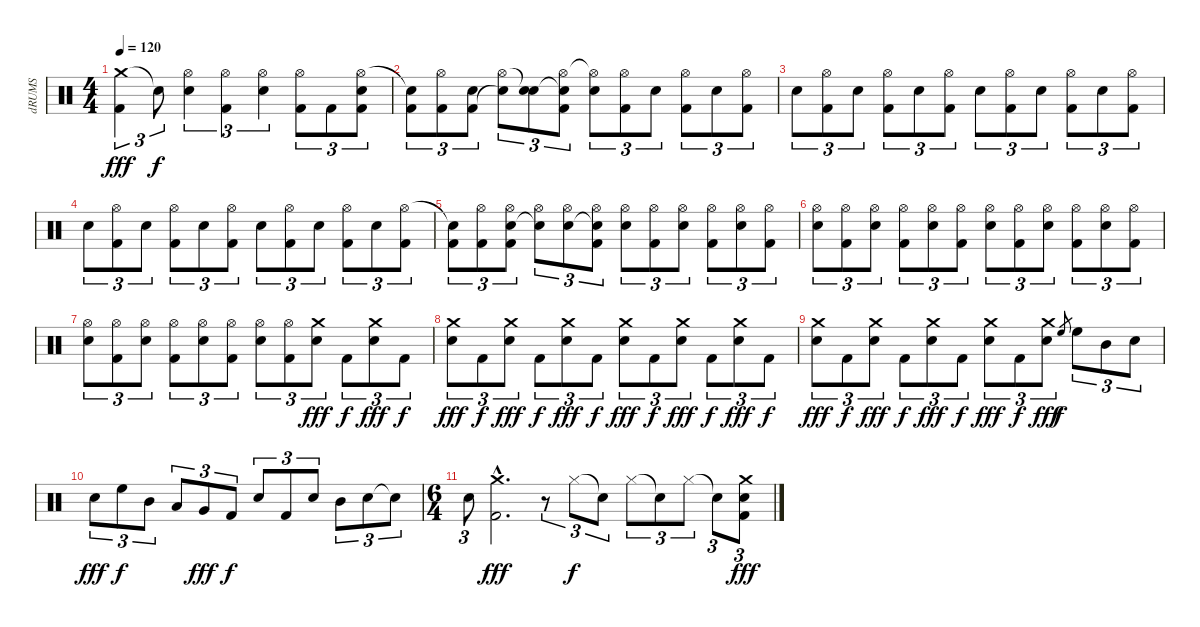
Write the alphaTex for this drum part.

\track ("dRUMS" "dRUMS") {instrument percussion}
\staff {score}
\articulation defaults
\ts (4 4)
\tempo 120
\clef neutral
\ks c
("Crash medium (hit)" "Kick (hit) 2").4{tu (3 2) dy fff} "Snare (hit)"{t}.8{tu (3 2) dy f} ("Hi-Hat (open)" "Electric Snare (hit)").4{tu (3 2)} ("Hi-Hat (open)" "Kick (hit) 2").4{tu (3 2)} ("Hi-Hat (open)" "Electric Snare (hit)").4{tu (3 2)} ("Hi-Hat (open)" "Kick (hit) 2").8{tu (3 2)} "Kick (hit) 2".8{tu (3 2)} ("Hi-Hat (open)" "Electric Snare (hit)" "Kick (hit) 2").8{tu (3 2)} |
("Snare (hit)"{t} "Kick (hit) 2").8{tu (3 2)} ("Hi-Hat (open)" "Kick (hit) 2").8{tu (3 2)} ("Electric Snare (hit)" "Kick (hit) 2").8{tu (3 2)} ("Hi-Hat (open)" "Snare (hit)"{t}).8{tu (3 2)} ("Snare (hit)"{t} "Electric Snare (hit)").8{tu (3 2)} ("Hi-Hat (open)" "Snare (hit)"{t} "Kick (hit) 2").8{tu (3 2)} ("Hi-Hat (open)"{t} "Electric Snare (hit)").8{tu (3 2)} ("Hi-Hat (open)" "Kick (hit) 2").8{tu (3 2)} "Electric Snare (hit)".8{tu (3 2)} ("Hi-Hat (open)" "Kick (hit) 2").8{tu (3 2)} "Electric Snare (hit)".8{tu (3 2)} ("Hi-Hat (open)" "Kick (hit) 2").8{tu (3 2)} |
"Electric Snare (hit)".8{tu (3 2)} ("Hi-Hat (open)" "Kick (hit) 2").8{tu (3 2)} "Electric Snare (hit)".8{tu (3 2)} ("Hi-Hat (open)" "Kick (hit) 2").8{tu (3 2)} "Electric Snare (hit)".8{tu (3 2)} ("Hi-Hat (open)" "Kick (hit) 2").8{tu (3 2)} "Electric Snare (hit)".8{tu (3 2)} ("Hi-Hat (open)" "Kick (hit) 2").8{tu (3 2)} "Electric Snare (hit)".8{tu (3 2)} ("Hi-Hat (open)" "Kick (hit) 2").8{tu (3 2)} "Electric Snare (hit)".8{tu (3 2)} ("Hi-Hat (open)" "Kick (hit) 2").8{tu (3 2)} |
"Electric Snare (hit)".8{tu (3 2)} ("Hi-Hat (open)" "Kick (hit) 2").8{tu (3 2)} "Electric Snare (hit)".8{tu (3 2)} ("Hi-Hat (open)" "Kick (hit) 2").8{tu (3 2)} "Electric Snare (hit)".8{tu (3 2)} ("Hi-Hat (open)" "Kick (hit) 2").8{tu (3 2)} "Electric Snare (hit)".8{tu (3 2)} ("Hi-Hat (open)" "Kick (hit) 2").8{tu (3 2)} "Electric Snare (hit)".8{tu (3 2)} ("Hi-Hat (open)" "Kick (hit) 2").8{tu (3 2)} "Electric Snare (hit)".8{tu (3 2)} ("Hi-Hat (open)" "Kick (hit) 2").8{tu (3 2)} |
("Snare (hit)"{t} "Kick (hit) 2").8{tu (3 2)} ("Hi-Hat (open)" "Kick (hit) 2").8{tu (3 2)} ("Hi-Hat (open)" "Electric Snare (hit)" "Kick (hit) 2").8{tu (3 2)} ("Hi-Hat (open)" "Snare (hit)"{t}).8{tu (3 2)} ("Hi-Hat (open)" "Electric Snare (hit)").8{tu (3 2)} ("Hi-Hat (open)" "Snare (hit)"{t} "Kick (hit) 2").8{tu (3 2)} ("Hi-Hat (open)" "Electric Snare (hit)").8{tu (3 2)} ("Hi-Hat (open)" "Kick (hit) 2").8{tu (3 2)} ("Hi-Hat (open)" "Electric Snare (hit)").8{tu (3 2)} ("Hi-Hat (open)" "Kick (hit) 2").8{tu (3 2)} ("Hi-Hat (open)" "Electric Snare (hit)").8{tu (3 2)} ("Hi-Hat (open)" "Kick (hit) 2").8{tu (3 2)} |
("Hi-Hat (open)" "Electric Snare (hit)").8{tu (3 2)} ("Hi-Hat (open)" "Kick (hit) 2").8{tu (3 2)} ("Hi-Hat (open)" "Electric Snare (hit)").8{tu (3 2)} ("Hi-Hat (open)" "Kick (hit) 2").8{tu (3 2)} ("Hi-Hat (open)" "Electric Snare (hit)").8{tu (3 2)} ("Hi-Hat (open)" "Kick (hit) 2").8{tu (3 2)} ("Hi-Hat (open)" "Electric Snare (hit)").8{tu (3 2)} ("Hi-Hat (open)" "Kick (hit) 2").8{tu (3 2)} ("Hi-Hat (open)" "Electric Snare (hit)").8{tu (3 2)} ("Hi-Hat (open)" "Kick (hit) 2").8{tu (3 2)} ("Hi-Hat (open)" "Electric Snare (hit)").8{tu (3 2)} ("Hi-Hat (open)" "Kick (hit) 2").8{tu (3 2)} |
("Hi-Hat (open)" "Electric Snare (hit)").8{tu (3 2)} ("Hi-Hat (open)" "Kick (hit) 2").8{tu (3 2)} ("Hi-Hat (open)" "Electric Snare (hit)").8{tu (3 2)} ("Hi-Hat (open)" "Kick (hit) 2").8{tu (3 2)} ("Hi-Hat (open)" "Electric Snare (hit)").8{tu (3 2)} ("Hi-Hat (open)" "Kick (hit) 2").8{tu (3 2)} ("Hi-Hat (open)" "Electric Snare (hit)").8{tu (3 2)} ("Hi-Hat (open)" "Kick (hit) 2").8{tu (3 2)} ("Crash medium (hit)" "Electric Snare (hit)").8{tu (3 2) dy fff} "Kick (hit) 2".8{tu (3 2) dy f} ("Crash medium (hit)" "Electric Snare (hit)").8{tu (3 2) dy fff} "Kick (hit) 2".8{tu (3 2) dy f} |
("Crash medium (hit)" "Electric Snare (hit)").8{tu (3 2) dy fff} "Kick (hit) 2".8{tu (3 2) dy f} ("Crash medium (hit)" "Electric Snare (hit)").8{tu (3 2) dy fff} "Kick (hit) 2".8{tu (3 2) dy f} ("Crash medium (hit)" "Electric Snare (hit)").8{tu (3 2) dy fff} "Kick (hit) 2".8{tu (3 2) dy f} ("Crash medium (hit)" "Electric Snare (hit)").8{tu (3 2) dy fff} "Kick (hit) 2".8{tu (3 2) dy f} ("Crash medium (hit)" "Electric Snare (hit)").8{tu (3 2) dy fff} "Kick (hit) 2".8{tu (3 2) dy f} ("Crash medium (hit)" "Electric Snare (hit)").8{tu (3 2) dy fff} "Kick (hit) 2".8{tu (3 2) dy f} |
("Crash medium (hit)" "Electric Snare (hit)").8{tu (3 2) dy fff} "Kick (hit) 2".8{tu (3 2) dy f} ("Crash medium (hit)" "Electric Snare (hit)").8{tu (3 2) dy fff} "Kick (hit) 2".8{tu (3 2) dy f} ("Crash medium (hit)" "Electric Snare (hit)").8{tu (3 2) dy fff} "Kick (hit) 2".8{tu (3 2) dy f} ("Crash medium (hit)" "Electric Snare (hit)").8{tu (3 2) dy fff} "Kick (hit) 2".8{tu (3 2) dy f} ("Crash medium (hit)" "Electric Snare (hit)").8{tu (3 2) dy fff} "High Floor Tom (hit)".8{gr dy f} "High Floor Tom (hit)".8{tu (3 2)} "Mid Tom (hit)".8{tu (3 2)} "Electric Snare (hit)".8{tu (3 2)} |
"Electric Snare (hit)".8{tu (3 2) dy fff} "High Floor Tom (hit)".8{tu (3 2) dy f} "Mid Tom (hit)".8{tu (3 2)} "Low Tom (hit)".8{tu (3 2)} "Very Low Tom (hit)".8{tu (3 2) dy fff} "Kick (hit) 2".8{tu (3 2) dy f} "Electric Snare (hit)".8{tu (3 2)} "Kick (hit) 2".8{tu (3 2)} "Electric Snare (hit)".8{tu (3 2)} "Mid Tom (hit)".8{tu (3 2)} "Electric Snare (hit)".8{tu (3 2)} "Snare (hit)"{t}.8{tu (3 2)} |
\ts (6 4)
"Electric Snare (hit)".8{tu (3 2)} ("Crash medium (hit)"{hac} "Kick (hit) 2"{hac}).2{d dy fff} r.8{tu (3 2)} "Hi-Hat (closed)".8{tu (3 2) dy f} "Snare (hit)"{t}.8{tu (3 2)} "Hi-Hat (closed)".8{tu (3 2)} "Snare (hit)"{t}.8{tu (3 2)} "Hi-Hat (closed)".8{tu (3 2)} "Snare (hit)"{t}.8{tu (3 2)} ("Crash medium (hit)" "Electric Snare (hit)" "Kick (hit) 2").8{tu (3 2) dy fff}
